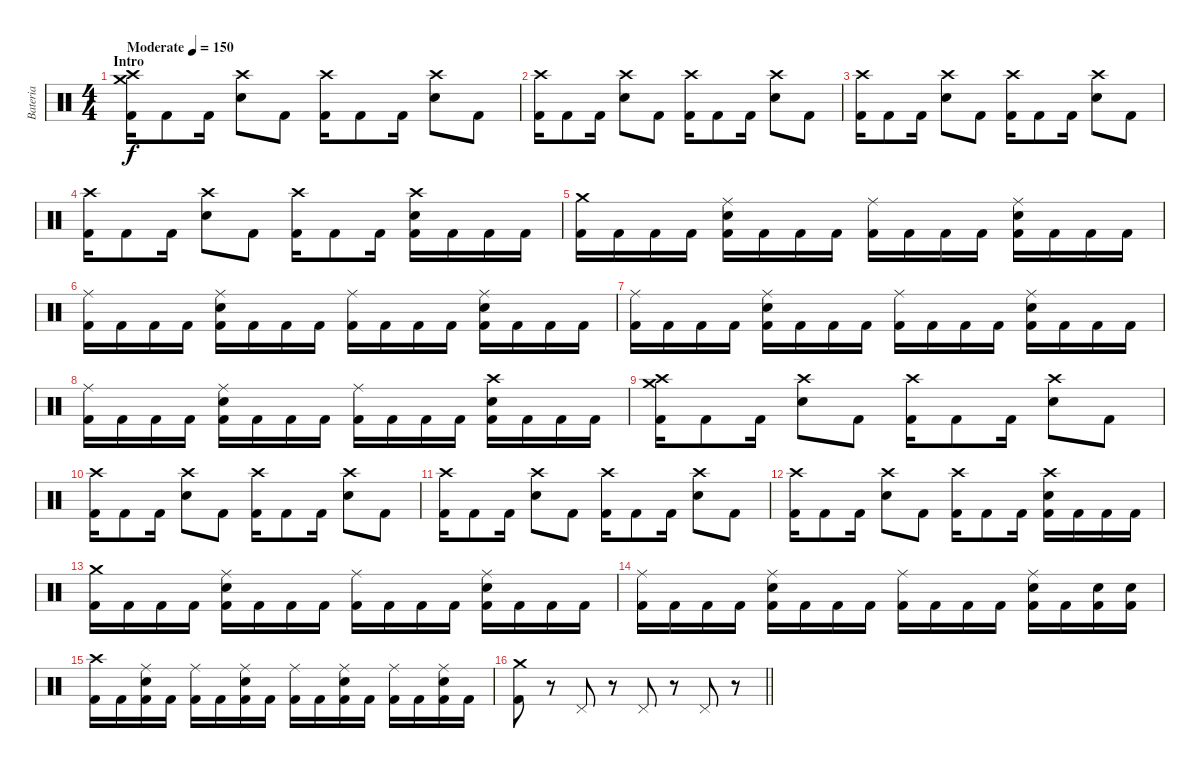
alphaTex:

\track ("Bateria" "Bateria") {instrument percussion}
\staff {score}
\articulation defaults
\ts (4 4)
\section ("" "Intro")
\tempo (150 "Moderate")
\clef neutral
\ks c
("Crash medium (hit)" "Crash high (hit)" "Kick (hit) 2").16{dy f} "Kick (hit) 2".8 "Kick (hit) 2".16 ("Crash high (hit)" "Snare (hit) 2").8 "Kick (hit) 2".8 ("Crash high (hit)" "Kick (hit) 2").16 "Kick (hit) 2".8 "Kick (hit) 2".16 ("Crash high (hit)" "Snare (hit) 2").8 "Kick (hit) 2".8 |
("Crash high (hit)" "Kick (hit) 2").16 "Kick (hit) 2".8 "Kick (hit) 2".16 ("Crash high (hit)" "Snare (hit) 2").8 "Kick (hit) 2".8 ("Crash high (hit)" "Kick (hit) 2").16 "Kick (hit) 2".8 "Kick (hit) 2".16 ("Crash high (hit)" "Snare (hit) 2").8 "Kick (hit) 2".8 |
("Crash high (hit)" "Kick (hit) 2").16 "Kick (hit) 2".8 "Kick (hit) 2".16 ("Crash high (hit)" "Snare (hit) 2").8 "Kick (hit) 2".8 ("Crash high (hit)" "Kick (hit) 2").16 "Kick (hit) 2".8 "Kick (hit) 2".16 ("Crash high (hit)" "Snare (hit) 2").8 "Kick (hit) 2".8 |
("Crash high (hit)" "Kick (hit) 2").16 "Kick (hit) 2".8 "Kick (hit) 2".16 ("Crash high (hit)" "Snare (hit) 2").8 "Kick (hit) 2".8 ("Crash high (hit)" "Kick (hit) 2").16 "Kick (hit) 2".8 "Kick (hit) 2".16 ("Crash high (hit)" "Snare (hit) 2" "Kick (hit) 2").16 "Kick (hit) 2".16 "Kick (hit) 2".16 "Kick (hit) 2".16 |
("Crash medium (hit)" "Kick (hit) 2").16 "Kick (hit) 2".16 "Kick (hit) 2".16 "Kick (hit) 2".16 ("Ride (middle)" "Snare (hit) 2" "Kick (hit) 2").16 "Kick (hit) 2".16 "Kick (hit) 2".16 "Kick (hit) 2".16 ("Ride (middle)" "Kick (hit) 2").16 "Kick (hit) 2".16 "Kick (hit) 2".16 "Kick (hit) 2".16 ("Ride (middle)" "Snare (hit) 2" "Kick (hit) 2").16 "Kick (hit) 2".16 "Kick (hit) 2".16 "Kick (hit) 2".16 |
("Ride (middle)" "Kick (hit) 2").16 "Kick (hit) 2".16 "Kick (hit) 2".16 "Kick (hit) 2".16 ("Ride (middle)" "Snare (hit) 2" "Kick (hit) 2").16 "Kick (hit) 2".16 "Kick (hit) 2".16 "Kick (hit) 2".16 ("Ride (middle)" "Kick (hit) 2").16 "Kick (hit) 2".16 "Kick (hit) 2".16 "Kick (hit) 2".16 ("Ride (middle)" "Snare (hit) 2" "Kick (hit) 2").16 "Kick (hit) 2".16 "Kick (hit) 2".16 "Kick (hit) 2".16 |
("Ride (middle)" "Kick (hit) 2").16 "Kick (hit) 2".16 "Kick (hit) 2".16 "Kick (hit) 2".16 ("Ride (middle)" "Snare (hit) 2" "Kick (hit) 2").16 "Kick (hit) 2".16 "Kick (hit) 2".16 "Kick (hit) 2".16 ("Ride (middle)" "Kick (hit) 2").16 "Kick (hit) 2".16 "Kick (hit) 2".16 "Kick (hit) 2".16 ("Ride (middle)" "Snare (hit) 2" "Kick (hit) 2").16 "Kick (hit) 2".16 "Kick (hit) 2".16 "Kick (hit) 2".16 |
("Ride (middle)" "Kick (hit) 2").16 "Kick (hit) 2".16 "Kick (hit) 2".16 "Kick (hit) 2".16 ("Ride (middle)" "Snare (hit) 2" "Kick (hit) 2").16 "Kick (hit) 2".16 "Kick (hit) 2".16 "Kick (hit) 2".16 ("Ride (middle)" "Kick (hit) 2").16 "Kick (hit) 2".16 "Kick (hit) 2".16 "Kick (hit) 2".16 ("Crash high (hit)" "Snare (hit) 2" "Kick (hit) 2").16 "Kick (hit) 2".16 "Kick (hit) 2".16 "Kick (hit) 2".16 |
("Crash high (hit)" "Crash medium (hit)" "Kick (hit) 2").16 "Kick (hit) 2".8 "Kick (hit) 2".16 ("Crash high (hit)" "Snare (hit) 2").8 "Kick (hit) 2".8 ("Crash high (hit)" "Kick (hit) 2").16 "Kick (hit) 2".8 "Kick (hit) 2".16 ("Crash high (hit)" "Snare (hit) 2").8 "Kick (hit) 2".8 |
("Crash high (hit)" "Kick (hit) 2").16 "Kick (hit) 2".8 "Kick (hit) 2".16 ("Crash high (hit)" "Snare (hit) 2").8 "Kick (hit) 2".8 ("Crash high (hit)" "Kick (hit) 2").16 "Kick (hit) 2".8 "Kick (hit) 2".16 ("Crash high (hit)" "Snare (hit) 2").8 "Kick (hit) 2".8 |
("Crash high (hit)" "Kick (hit) 2").16 "Kick (hit) 2".8 "Kick (hit) 2".16 ("Crash high (hit)" "Snare (hit) 2").8 "Kick (hit) 2".8 ("Crash high (hit)" "Kick (hit) 2").16 "Kick (hit) 2".8 "Kick (hit) 2".16 ("Crash high (hit)" "Snare (hit) 2").8 "Kick (hit) 2".8 |
("Crash high (hit)" "Kick (hit) 2").16 "Kick (hit) 2".8 "Kick (hit) 2".16 ("Crash high (hit)" "Snare (hit) 2").8 "Kick (hit) 2".8 ("Crash high (hit)" "Kick (hit) 2").16 "Kick (hit) 2".8 "Kick (hit) 2".16 ("Crash high (hit)" "Snare (hit) 2" "Kick (hit) 2").16 "Kick (hit) 2".16 "Kick (hit) 2".16 "Kick (hit) 2".16 |
("Crash medium (hit)" "Kick (hit) 2").16 "Kick (hit) 2".16 "Kick (hit) 2".16 "Kick (hit) 2".16 ("Ride (middle)" "Snare (hit) 2" "Kick (hit) 2").16 "Kick (hit) 2".16 "Kick (hit) 2".16 "Kick (hit) 2".16 ("Ride (middle)" "Kick (hit) 2").16 "Kick (hit) 2".16 "Kick (hit) 2".16 "Kick (hit) 2".16 ("Ride (middle)" "Snare (hit) 2" "Kick (hit) 2").16 "Kick (hit) 2".16 "Kick (hit) 2".16 "Kick (hit) 2".16 |
("Ride (middle)" "Kick (hit) 2").16 "Kick (hit) 2".16 "Kick (hit) 2".16 "Kick (hit) 2".16 ("Ride (middle)" "Snare (hit) 2" "Kick (hit) 2").16 "Kick (hit) 2".16 "Kick (hit) 2".16 "Kick (hit) 2".16 ("Ride (middle)" "Kick (hit) 2").16 "Kick (hit) 2".16 "Kick (hit) 2".16 "Kick (hit) 2".16 ("Ride (middle)" "Snare (hit) 2" "Kick (hit) 2").16 "Kick (hit) 2".16 ("Snare (hit) 2" "Kick (hit) 2").16 ("Snare (hit) 2" "Kick (hit) 2").16 |
("Crash high (hit)" "Kick (hit) 2").16 "Kick (hit) 2".16 ("Ride (middle)" "Snare (hit) 2" "Kick (hit) 2").16 "Kick (hit) 2".16 ("Ride (middle)" "Kick (hit) 2").16 "Kick (hit) 2".16 ("Ride (middle)" "Snare (hit) 2" "Kick (hit) 2").16 "Kick (hit) 2".16 ("Ride (middle)" "Kick (hit) 2").16 "Kick (hit) 2".16 ("Ride (middle)" "Snare (hit) 2" "Kick (hit) 2").16 "Kick (hit) 2".16 ("Ride (middle)" "Kick (hit) 2").16 "Kick (hit) 2".16 ("Ride (middle)" "Snare (hit) 2" "Kick (hit) 2").16 "Kick (hit) 2".16 |
\barLineRight lightlight
("Crash medium (hit)" "Kick (hit) 2").8 r.8 "Pedal Hi-Hat (hit)".8 r.8 "Pedal Hi-Hat (hit)".8 r.8 "Pedal Hi-Hat (hit)".8 r.8
